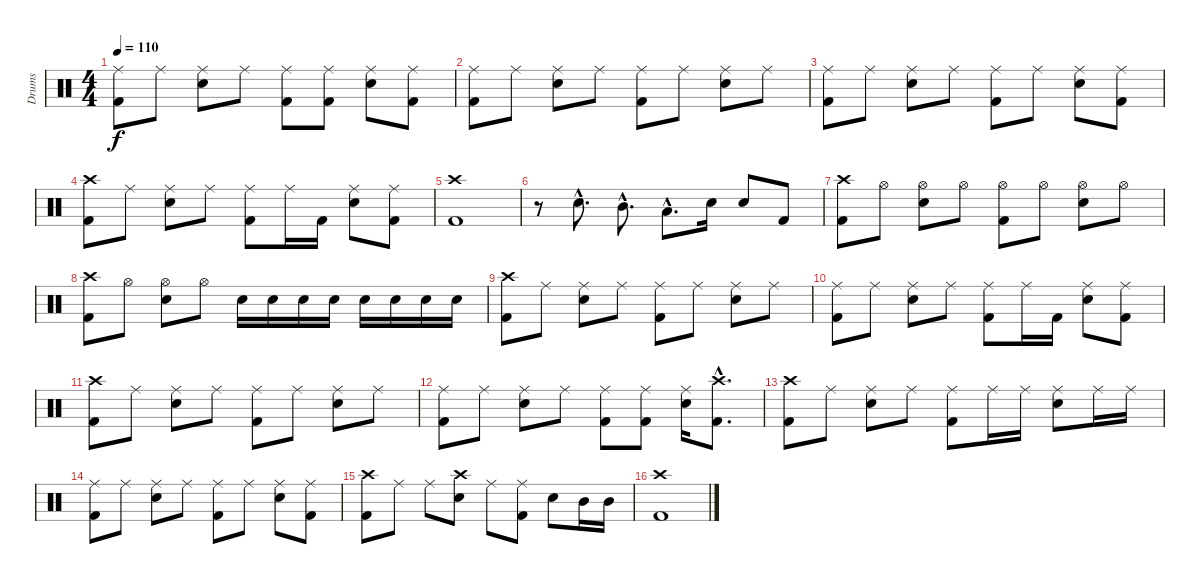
\track ("Drums" "Drums") {instrument percussion}
\staff {score}
\articulation defaults
\ts (4 4)
\tempo 110
\clef neutral
\ks c
("Ride (middle)" "Kick (hit) 2").8{dy f} "Ride (middle)".8 ("Ride (middle)" "Electric Snare (hit)").8 "Ride (middle)".8 ("Ride (middle)" "Kick (hit) 2").8 ("Ride (middle)" "Kick (hit) 2").8 ("Ride (middle)" "Electric Snare (hit)").8 ("Ride (middle)" "Kick (hit) 2").8 |
("Ride (middle)" "Kick (hit) 2").8 "Ride (middle)".8 ("Ride (middle)" "Electric Snare (hit)").8 "Ride (middle)".8 ("Ride (middle)" "Kick (hit) 2").8 "Ride (middle)".8 ("Ride (middle)" "Electric Snare (hit)").8 "Ride (middle)".8 |
("Ride (middle)" "Kick (hit) 2").8 "Ride (middle)".8 ("Ride (middle)" "Electric Snare (hit)").8 "Ride (middle)".8 ("Ride (middle)" "Kick (hit) 2").8 "Ride (middle)".8 ("Ride (middle)" "Electric Snare (hit)").8 ("Ride (middle)" "Kick (hit) 2").8 |
("Crash high (hit)" "Kick (hit) 2").8 "Ride (middle)".8 ("Ride (middle)" "Electric Snare (hit)").8 "Ride (middle)".8 ("Ride (middle)" "Kick (hit) 2").8 "Ride (middle)".16 "Kick (hit) 2".16 ("Ride (middle)" "Electric Snare (hit)").8 ("Ride (middle)" "Kick (hit) 2").8 |
("Crash high (hit)" "Kick (hit) 2").1 |
r.8 "Electric Snare (hit)"{hac}.8{d} "Mid Tom (hit)"{hac}.8{d} "Low Tom (hit)"{hac}.8{d} "Electric Snare (hit)".16 "Electric Snare (hit)".8 "Kick (hit) 2".8 |
("Crash high (hit)" "Kick (hit) 2").8 "Hi-Hat (open)".8 ("Hi-Hat (open)" "Electric Snare (hit)").8 "Hi-Hat (open)".8 ("Hi-Hat (open)" "Kick (hit) 2").8 "Hi-Hat (open)".8 ("Hi-Hat (open)" "Electric Snare (hit)").8 "Hi-Hat (open)".8 |
("Crash high (hit)" "Kick (hit) 2").8 "Hi-Hat (open)".8 ("Hi-Hat (open)" "Electric Snare (hit)").8 "Hi-Hat (open)".8 "Electric Snare (hit)".16 "Electric Snare (hit)".16 "Electric Snare (hit)".16 "Electric Snare (hit)".16 "Electric Snare (hit)".16 "Electric Snare (hit)".16 "Electric Snare (hit)".16 "Electric Snare (hit)".16 |
("Crash high (hit)" "Kick (hit) 2").8 "Ride (middle)".8 ("Ride (middle)" "Electric Snare (hit)").8 "Ride (middle)".8 ("Ride (middle)" "Kick (hit) 2").8 "Ride (middle)".8 ("Ride (middle)" "Electric Snare (hit)").8 "Ride (middle)".8 |
("Ride (middle)" "Kick (hit) 2").8 "Ride (middle)".8 ("Ride (middle)" "Electric Snare (hit)").8 "Ride (middle)".8 ("Ride (middle)" "Kick (hit) 2").8 "Ride (middle)".16 "Kick (hit) 2".16 ("Ride (middle)" "Electric Snare (hit)").8 ("Ride (middle)" "Kick (hit) 2").8 |
("Crash high (hit)" "Kick (hit) 2").8 "Ride (middle)".8 ("Ride (middle)" "Electric Snare (hit)").8 "Ride (middle)".8 ("Ride (middle)" "Kick (hit) 2").8 "Ride (middle)".8 ("Ride (middle)" "Electric Snare (hit)").8 "Ride (middle)".8 |
("Ride (middle)" "Kick (hit) 2").8 "Ride (middle)".8 ("Ride (middle)" "Electric Snare (hit)").8 "Ride (middle)".8 ("Ride (middle)" "Kick (hit) 2").8 ("Ride (middle)" "Kick (hit) 2").8 ("Ride (middle)" "Electric Snare (hit)").16 ("Crash high (hit)"{hac} "Kick (hit) 2"{hac}).8{d} |
("Crash high (hit)" "Kick (hit) 2").8 "Ride (middle)".8 ("Ride (middle)" "Electric Snare (hit)").8 "Ride (middle)".8 ("Ride (middle)" "Kick (hit) 2").8 "Ride (middle)".16 "Ride (middle)".16 ("Ride (middle)" "Electric Snare (hit)").8 "Ride (middle)".16 "Ride (middle)".16 |
("Ride (middle)" "Kick (hit) 2").8 "Ride (middle)".8 ("Ride (middle)" "Electric Snare (hit)").8 "Ride (middle)".8 ("Ride (middle)" "Kick (hit) 2").8 "Ride (middle)".8 ("Ride (middle)" "Electric Snare (hit)").8 ("Ride (middle)" "Kick (hit) 2").8 |
("Crash high (hit)" "Kick (hit) 2").8 "Ride (middle)".8 "Ride (middle)".8 ("Crash high (hit)" "Electric Snare (hit)").8 "Ride (middle)".8 ("Ride (middle)" "Kick (hit) 2").8 "Electric Snare (hit)".8 "Mid Tom (hit)".16 "Mid Tom (hit)".16 |
("Crash high (hit)" "Kick (hit) 2").1
